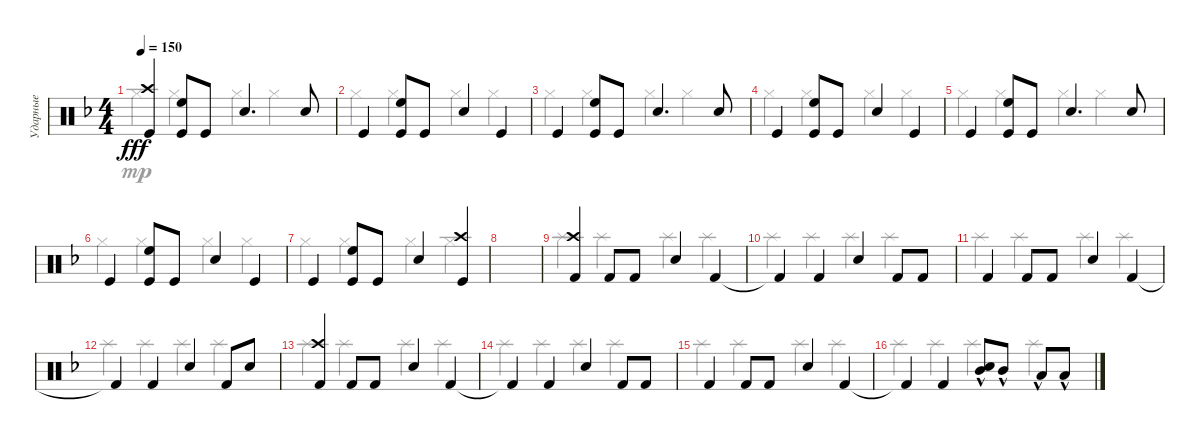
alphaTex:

\track ("Ударные" "Ударные") {instrument percussion}
\staff {score}
\articulation defaults
\voice
\ts (4 4)
\tempo 150
\clef neutral
\ks dminor
("Crash high (hit)" "Kick (hit)").4{dy fff} ("Kick (hit)" "High Floor Tom (hit)").8 "Kick (hit)".8 "Snare (hit) 2".4{d} "Snare (hit) 2".8 |
"Kick (hit)".4 ("Kick (hit)" "High Floor Tom (hit)").8 "Kick (hit)".8 "Snare (hit) 2".4 "Kick (hit)".4 |
"Kick (hit)".4 ("Kick (hit)" "High Floor Tom (hit)").8 "Kick (hit)".8 "Snare (hit) 2".4{d} "Snare (hit) 2".8 |
"Kick (hit)".4 ("Kick (hit)" "High Floor Tom (hit)").8 "Kick (hit)".8 "Snare (hit) 2".4 "Kick (hit)".4 |
"Kick (hit)".4 ("Kick (hit)" "High Floor Tom (hit)").8 "Kick (hit)".8 "Snare (hit) 2".4{d} "Snare (hit) 2".8 |
"Kick (hit)".4 ("Kick (hit)" "High Floor Tom (hit)").8 "Kick (hit)".8 "Snare (hit) 2".4 "Kick (hit)".4 |
"Kick (hit)".4 ("Kick (hit)" "High Floor Tom (hit)").8 "Kick (hit)".8 "Snare (hit) 2".4 ("Kick (hit)" "Crash high (hit)").4 |
|
("Crash high (hit)" "Kick (hit) 2").4 "Kick (hit) 2".8 "Kick (hit) 2".8 "Snare (hit) 2".4 "Kick (hit) 2".4 |
"Kick (hit) 2"{t}.4 "Kick (hit) 2".4 "Snare (hit) 2".4 "Kick (hit) 2".8 "Kick (hit) 2".8 |
"Kick (hit) 2".4 "Kick (hit) 2".8 "Kick (hit) 2".8 "Snare (hit) 2".4 "Kick (hit) 2".4 |
"Kick (hit) 2"{t}.4 "Kick (hit) 2".4 "Snare (hit) 2".4 "Kick (hit) 2".8 "Snare (hit) 2".8 |
("Crash high (hit)" "Kick (hit) 2").4 "Kick (hit) 2".8 "Kick (hit) 2".8 "Snare (hit) 2".4 "Kick (hit) 2".4 |
"Kick (hit) 2"{t}.4 "Kick (hit) 2".4 "Snare (hit) 2".4 "Kick (hit) 2".8 "Kick (hit) 2".8 |
"Kick (hit) 2".4 "Kick (hit) 2".8 "Kick (hit) 2".8 "Snare (hit) 2".4 "Kick (hit) 2".4 |
"Kick (hit) 2"{t}.4 "Kick (hit) 2".4 ("Snare (hit) 2" "Mid Tom (hit)"{hac}).8 "Mid Tom (hit)"{hac}.8 "Low Tom (hit)"{hac}.8 "Low Tom (hit)"{hac}.8
\voice
\clef neutral
\ottava regular
\simile none
\ks dminor "Hi-Hat (closed)".4{dy mp} "Hi-Hat (closed)".4 "Hi-Hat (closed)".4 "Hi-Hat (closed)".4
|
"Hi-Hat (closed)".4 "Hi-Hat (closed)".4 "Hi-Hat (closed)".4 "Hi-Hat (closed)".4 |
"Hi-Hat (closed)".4 "Hi-Hat (closed)".4 "Hi-Hat (closed)".4 "Hi-Hat (closed)".4 |
"Hi-Hat (closed)".4 "Hi-Hat (closed)".4 "Hi-Hat (closed)".4 "Hi-Hat (closed)".4 |
"Hi-Hat (closed)".4 "Hi-Hat (closed)".4 "Hi-Hat (closed)".4 "Hi-Hat (closed)".4 |
"Hi-Hat (closed)".4 "Hi-Hat (closed)".4 "Hi-Hat (closed)".4 "Hi-Hat (closed)".4 |
"Hi-Hat (closed)".4 "Hi-Hat (closed)".4 "Hi-Hat (closed)".4 "Hi-Hat (closed)".4 |
|
"Splash (hit)".4 "Splash (hit)".4 "Splash (hit)".4 "Splash (hit)".4 |
"Splash (hit)".4 "Splash (hit)".4 "Splash (hit)".4 "Splash (hit)".4 |
"Splash (hit)".4 "Splash (hit)".4 "Splash (hit)".4 "Splash (hit)".4 |
"Splash (hit)".4 "Splash (hit)".4 "Splash (hit)".4 "Splash (hit)".4 |
"Splash (hit)".4 "Splash (hit)".4 "Splash (hit)".4 "Splash (hit)".4 |
"Splash (hit)".4 "Splash (hit)".4 "Splash (hit)".4 "Splash (hit)".4 |
"Splash (hit)".4 "Splash (hit)".4 "Splash (hit)".4 "Splash (hit)".4 |
"Splash (hit)".4 "Splash (hit)".4 "Splash (hit)".4 "Splash (hit)".4
